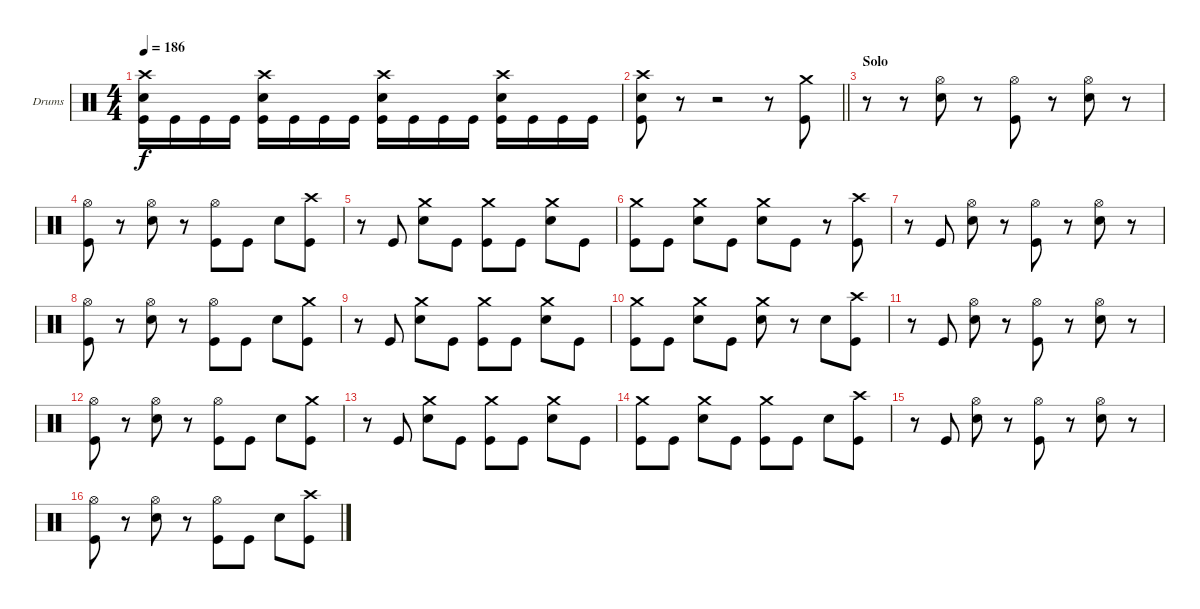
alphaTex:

\bracketExtendMode groupsimilarinstruments
\firstSystemTrackNameOrientation horizontal
\otherSystemsTrackNameOrientation horizontal
\track ("Drumkit" "Drums") {instrument percussion}
\staff {score}
\articulation defaults
\ts (4 4)
\tempo 186
\clef neutral
\scale
0.333333
\ks c
("Crash high (hit)" "Snare (hit) 2" "Kick (hit)").16{dy f} "Kick (hit)".16 "Kick (hit)".16 "Kick (hit)".16 ("Crash high (hit)" "Snare (hit) 2" "Kick (hit)").16 "Kick (hit)".16 "Kick (hit)".16 "Kick (hit)".16 ("Crash high (hit)" "Snare (hit) 2" "Kick (hit)").16 "Kick (hit)".16 "Kick (hit)".16 "Kick (hit)".16 ("Crash high (hit)" "Snare (hit) 2" "Kick (hit)").16 "Kick (hit)".16 "Kick (hit)".16 "Kick (hit)".16 |
\scale
0.333333
\barLineRight lightlight
("Crash high (hit)" "Snare (hit) 2" "Kick (hit)").8 r.8 r.2 r.8 ("Crash medium (hit)" "Kick (hit)").8 |
\section ("" "Solo")
\scale
0.333333 r.8 r.8 ("Hi-Hat (open)" "Snare (hit) 2").8 r.8 ("Hi-Hat (open)" "Kick (hit)").8 r.8 ("Hi-Hat (open)" "Snare (hit) 2").8 r.8 |
\scale
0.333333 ("Hi-Hat (open)" "Kick (hit)").8 r.8 ("Hi-Hat (open)" "Snare (hit) 2").8 r.8 ("Hi-Hat (open)" "Kick (hit)").8 "Kick (hit)".8 "Snare (hit) 2".8 ("Crash high (hit)" "Kick (hit)").8 |
\scale
0.333333 r.8 "Kick (hit)".8 ("Crash medium (hit)" "Snare (hit) 2").8 "Kick (hit)".8 ("Crash medium (hit)" "Kick (hit)").8 "Kick (hit)".8 ("Crash medium (hit)" "Snare (hit) 2").8 "Kick (hit)".8 |
\scale
0.333333 ("Crash medium (hit)" "Kick (hit)").8 "Kick (hit)".8 ("Crash medium (hit)" "Snare (hit) 2").8 "Kick (hit)".8 ("Crash medium (hit)" "Snare (hit) 2").8 "Kick (hit)".8 r.8 ("Crash high (hit)" "Kick (hit)").8 |
\scale
0.333333 r.8 "Kick (hit)".8 ("Hi-Hat (open)" "Snare (hit) 2").8 r.8 ("Hi-Hat (open)" "Kick (hit)").8 r.8 ("Hi-Hat (open)" "Snare (hit) 2").8 r.8 |
\scale
0.333333 ("Hi-Hat (open)" "Kick (hit)").8 r.8 ("Hi-Hat (open)" "Snare (hit) 2").8 r.8 ("Hi-Hat (open)" "Kick (hit)").8 "Kick (hit)".8 "Snare (hit) 2".8 ("Crash medium (hit)" "Kick (hit)").8 |
\scale
0.333333 r.8 "Kick (hit)".8 ("Crash medium (hit)" "Snare (hit) 2").8 "Kick (hit)".8 ("Crash medium (hit)" "Kick (hit)").8 "Kick (hit)".8 ("Crash medium (hit)" "Snare (hit) 2").8 "Kick (hit)".8 |
\scale
0.333333 ("Crash medium (hit)" "Kick (hit)").8 "Kick (hit)".8 ("Crash medium (hit)" "Snare (hit) 2").8 "Kick (hit)".8 ("Crash medium (hit)" "Snare (hit) 2").8 r.8 "Snare (hit) 2".8 ("Crash high (hit)" "Kick (hit)").8 |
\scale
0.333333 r.8 "Kick (hit)".8 ("Hi-Hat (open)" "Snare (hit) 2").8 r.8 ("Hi-Hat (open)" "Kick (hit)").8 r.8 ("Hi-Hat (open)" "Snare (hit) 2").8 r.8 |
\scale
0.333333 ("Hi-Hat (open)" "Kick (hit)").8 r.8 ("Hi-Hat (open)" "Snare (hit) 2").8 r.8 ("Hi-Hat (open)" "Kick (hit)").8 "Kick (hit)".8 "Snare (hit) 2".8 ("Crash medium (hit)" "Kick (hit)").8 |
\scale
0.333333 r.8 "Kick (hit)".8 ("Crash medium (hit)" "Snare (hit) 2").8 "Kick (hit)".8 ("Crash medium (hit)" "Kick (hit)").8 "Kick (hit)".8 ("Crash medium (hit)" "Snare (hit) 2").8 "Kick (hit)".8 |
\scale
0.333333 ("Crash medium (hit)" "Kick (hit)").8 "Kick (hit)".8 ("Crash medium (hit)" "Snare (hit) 2").8 "Kick (hit)".8 ("Crash medium (hit)" "Kick (hit)").8 "Kick (hit)".8 "Snare (hit) 2".8 ("Crash high (hit)" "Kick (hit)").8 |
\scale
0.333333 r.8 "Kick (hit)".8 ("Hi-Hat (open)" "Snare (hit) 2").8 r.8 ("Hi-Hat (open)" "Kick (hit)").8 r.8 ("Hi-Hat (open)" "Snare (hit) 2").8 r.8 |
\scale
0.333333 ("Hi-Hat (open)" "Kick (hit)").8 r.8 ("Hi-Hat (open)" "Snare (hit) 2").8 r.8 ("Hi-Hat (open)" "Kick (hit)").8 "Kick (hit)".8 "Snare (hit) 2".8 ("Crash high (hit)" "Kick (hit)").8
